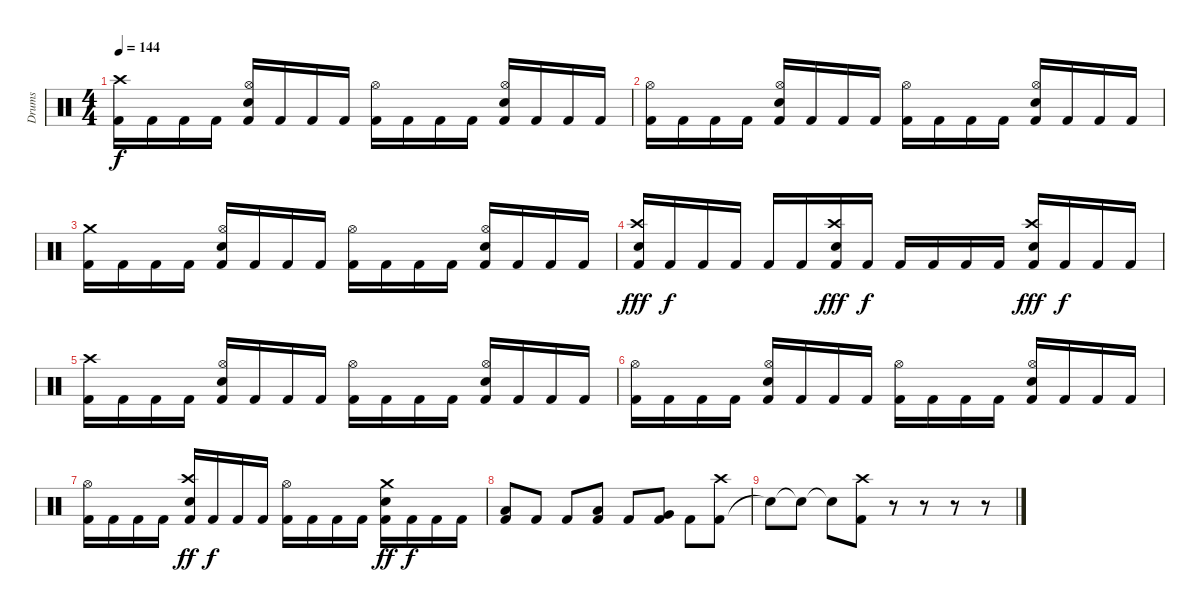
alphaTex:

\track ("Drums" "Drums") {instrument percussion}
\staff {score}
\articulation defaults
\ts (4 4)
\tempo 144
\clef neutral
\ks c
("Kick (hit) 2" "Crash high (hit)").16{dy f} "Kick (hit) 2".16 "Kick (hit) 2".16 "Kick (hit) 2".16 ("Kick (hit) 2" "Hi-Hat (open)" "Electric Snare (hit)").16 "Kick (hit) 2".16 "Kick (hit) 2".16 "Kick (hit) 2".16 ("Kick (hit) 2" "Hi-Hat (open)").16 "Kick (hit) 2".16 "Kick (hit) 2".16 "Kick (hit) 2".16 ("Kick (hit) 2" "Hi-Hat (open)" "Electric Snare (hit)").16 "Kick (hit) 2".16 "Kick (hit) 2".16 "Kick (hit) 2".16 |
("Kick (hit) 2" "Hi-Hat (open)").16 "Kick (hit) 2".16 "Kick (hit) 2".16 "Kick (hit) 2".16 ("Kick (hit) 2" "Hi-Hat (open)" "Electric Snare (hit)").16 "Kick (hit) 2".16 "Kick (hit) 2".16 "Kick (hit) 2".16 ("Kick (hit) 2" "Hi-Hat (open)").16 "Kick (hit) 2".16 "Kick (hit) 2".16 "Kick (hit) 2".16 ("Kick (hit) 2" "Hi-Hat (open)" "Electric Snare (hit)").16 "Kick (hit) 2".16 "Kick (hit) 2".16 "Kick (hit) 2".16 |
("Kick (hit) 2" "Crash medium (hit)").16 "Kick (hit) 2".16 "Kick (hit) 2".16 "Kick (hit) 2".16 ("Kick (hit) 2" "Hi-Hat (open)" "Electric Snare (hit)").16 "Kick (hit) 2".16 "Kick (hit) 2".16 "Kick (hit) 2".16 ("Kick (hit) 2" "Hi-Hat (open)").16 "Kick (hit) 2".16 "Kick (hit) 2".16 "Kick (hit) 2".16 ("Kick (hit) 2" "Hi-Hat (open)" "Electric Snare (hit)").16 "Kick (hit) 2".16 "Kick (hit) 2".16 "Kick (hit) 2".16 |
("Kick (hit) 2" "Electric Snare (hit)" "Crash high (hit)").16{dy fff} "Kick (hit) 2".16{dy f} "Kick (hit) 2".16 "Kick (hit) 2".16 "Kick (hit) 2".16 "Kick (hit) 2".16 ("Kick (hit) 2" "Electric Snare (hit)" "Crash high (hit)").16{dy fff} "Kick (hit) 2".16{dy f} "Kick (hit) 2".16 "Kick (hit) 2".16 "Kick (hit) 2".16 "Kick (hit) 2".16 ("Kick (hit) 2" "Electric Snare (hit)" "Crash high (hit)").16{dy fff} "Kick (hit) 2".16{dy f} "Kick (hit) 2".16 "Kick (hit) 2".16 |
("Kick (hit) 2" "Crash high (hit)").16 "Kick (hit) 2".16 "Kick (hit) 2".16 "Kick (hit) 2".16 ("Kick (hit) 2" "Hi-Hat (open)" "Electric Snare (hit)").16 "Kick (hit) 2".16 "Kick (hit) 2".16 "Kick (hit) 2".16 ("Kick (hit) 2" "Hi-Hat (open)").16 "Kick (hit) 2".16 "Kick (hit) 2".16 "Kick (hit) 2".16 ("Kick (hit) 2" "Hi-Hat (open)" "Electric Snare (hit)").16 "Kick (hit) 2".16 "Kick (hit) 2".16 "Kick (hit) 2".16 |
("Kick (hit) 2" "Hi-Hat (open)").16 "Kick (hit) 2".16 "Kick (hit) 2".16 "Kick (hit) 2".16 ("Kick (hit) 2" "Hi-Hat (open)" "Electric Snare (hit)").16 "Kick (hit) 2".16 "Kick (hit) 2".16 "Kick (hit) 2".16 ("Kick (hit) 2" "Hi-Hat (open)").16 "Kick (hit) 2".16 "Kick (hit) 2".16 "Kick (hit) 2".16 ("Kick (hit) 2" "Hi-Hat (open)" "Electric Snare (hit)").16 "Kick (hit) 2".16 "Kick (hit) 2".16 "Kick (hit) 2".16 |
("Kick (hit) 2" "Hi-Hat (open)").16 "Kick (hit) 2".16 "Kick (hit) 2".16 "Kick (hit) 2".16 ("Kick (hit) 2" "Electric Snare (hit)" "Crash high (hit)").16{dy ff} "Kick (hit) 2".16{dy f} "Kick (hit) 2".16 "Kick (hit) 2".16 ("Kick (hit) 2" "Hi-Hat (open)").16 "Kick (hit) 2".16 "Kick (hit) 2".16 "Kick (hit) 2".16 ("Kick (hit) 2" "Electric Snare (hit)" "Crash medium (hit)").16{dy ff} "Kick (hit) 2".16{dy f} "Kick (hit) 2".16 "Kick (hit) 2".16 |
("Kick (hit) 2" "Low Tom (hit)").8 "Kick (hit) 2".8 "Kick (hit) 2".8 ("Kick (hit) 2" "Low Tom (hit)").8 "Kick (hit) 2".8 ("Kick (hit) 2" "Very Low Tom (hit)").8 "Kick (hit) 2".8 ("Kick (hit) 2" "Crash high (hit)").8 |
"Snare (hit)"{t}.8 "Snare (hit)"{t}.8 "Snare (hit)"{t}.8 ("Kick (hit) 2" "Crash high (hit)").8 r.8 r.8 r.8 r.8
